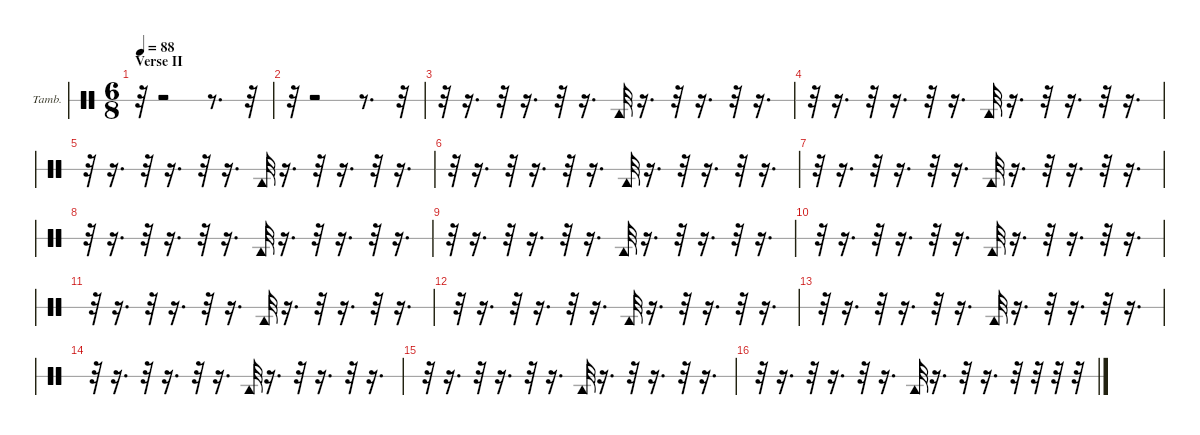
\hideDynamics
\bracketExtendMode nobrackets
\firstSystemTrackNameOrientation horizontal
\otherSystemsTrackNameOrientation horizontal
\track ("Tambourine" "Tamb.") {instrument percussion}
\staff {score 1}
\articulation defaults
\ts (6 8)
\section ("" "Verse II")
\tempo 88
\clef neutral
\ks c
r.32{dy ff} r.2 r.8{d} r.32 |
r.32 r.2 r.8{d} r.32 |
r.32 r.16{d} r.32 r.16{d} r.32 r.16{d} "Tambourine (hit)".32 r.16{d} r.32 r.16{d} r.32 r.16{d} |
r.32 r.16{d} r.32 r.16{d} r.32 r.16{d} "Tambourine (hit)".32 r.16{d} r.32 r.16{d} r.32 r.16{d} |
r.32 r.16{d} r.32 r.16{d} r.32 r.16{d} "Tambourine (hit)".32 r.16{d} r.32 r.16{d} r.32 r.16{d} |
r.32 r.16{d} r.32 r.16{d} r.32 r.16{d} "Tambourine (hit)".32 r.16{d} r.32 r.16{d} r.32 r.16{d} |
r.32 r.16{d} r.32 r.16{d} r.32 r.16{d} "Tambourine (hit)".32 r.16{d} r.32 r.16{d} r.32 r.16{d} |
r.32 r.16{d} r.32 r.16{d} r.32 r.16{d} "Tambourine (hit)".32 r.16{d} r.32 r.16{d} r.32 r.16{d} |
r.32 r.16{d} r.32 r.16{d} r.32 r.16{d} "Tambourine (hit)".32 r.16{d} r.32 r.16{d} r.32 r.16{d} |
r.32 r.16{d} r.32 r.16{d} r.32 r.16{d} "Tambourine (hit)".32 r.16{d} r.32 r.16{d} r.32 r.16{d} |
r.32 r.16{d} r.32 r.16{d} r.32 r.16{d} "Tambourine (hit)".32 r.16{d} r.32 r.16{d} r.32 r.16{d} |
r.32 r.16{d} r.32 r.16{d} r.32 r.16{d} "Tambourine (hit)".32 r.16{d} r.32 r.16{d} r.32 r.16{d} |
r.32 r.16{d} r.32 r.16{d} r.32 r.16{d} "Tambourine (hit)".32 r.16{d} r.32 r.16{d} r.32 r.16{d} |
r.32 r.16{d} r.32 r.16{d} r.32 r.16{d} "Tambourine (hit)".32 r.16{d} r.32 r.16{d} r.32 r.16{d} |
r.32 r.16{d} r.32 r.16{d} r.32 r.16{d} "Tambourine (hit)".32 r.16{d} r.32 r.16{d} r.32 r.16{d} |
r.32 r.16{d} r.32 r.16{d} r.32 r.16{d} "Tambourine (hit)".32 r.16{d} r.32 r.16{d} r.32 r.32 r.32 r.32
